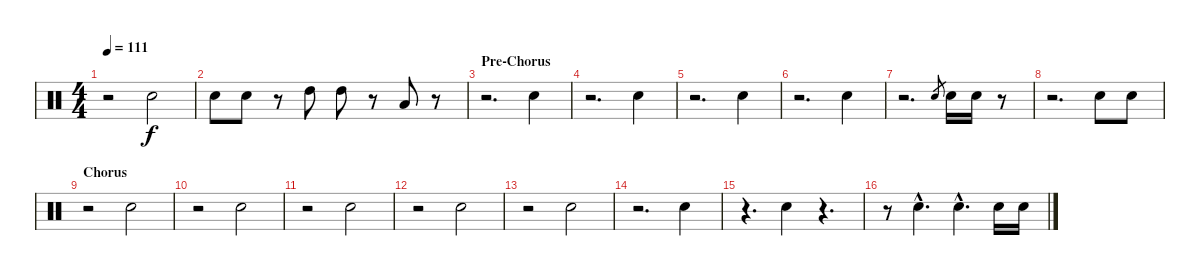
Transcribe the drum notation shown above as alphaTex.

\track "" {instrument percussion}
\staff {score}
\articulation defaults
\ts (4 4)
\tempo 111
\clef neutral
\ks c
r.2{dy f} "Electric Snare (hit)".2 |
"Electric Snare (hit)".8 "Electric Snare (hit)".8 r.8 "High Tom (hit)".8 "High Tom (hit)".8 r.8 "Low Tom (hit)".8 r.8 |
\section ("" "Pre-Chorus")
r.2{d} "Electric Snare (hit)".4 |
r.2{d} "Electric Snare (hit)".4 |
r.2{d} "Electric Snare (hit)".4 |
r.2{d} "Electric Snare (hit)".4 |
r.2{d} "Electric Snare (hit)".8{gr} "Electric Snare (hit)".16 "Electric Snare (hit)".16 r.8 |
r.2{d} "Electric Snare (hit)".8 "Electric Snare (hit)".8 |
\section ("" "Chorus")
r.2 "Electric Snare (hit)".2 |
r.2 "Electric Snare (hit)".2 |
r.2 "Electric Snare (hit)".2 |
r.2 "Electric Snare (hit)".2 |
r.2 "Electric Snare (hit)".2 |
r.2{d} "Electric Snare (hit)".4 |
r.4{d} "Electric Snare (hit)".4 r.4{d} |
r.8 "Electric Snare (hit)"{hac}.4{d} "Electric Snare (hit)"{hac}.4{d} "Electric Snare (hit)".16 "Electric Snare (hit)".16
